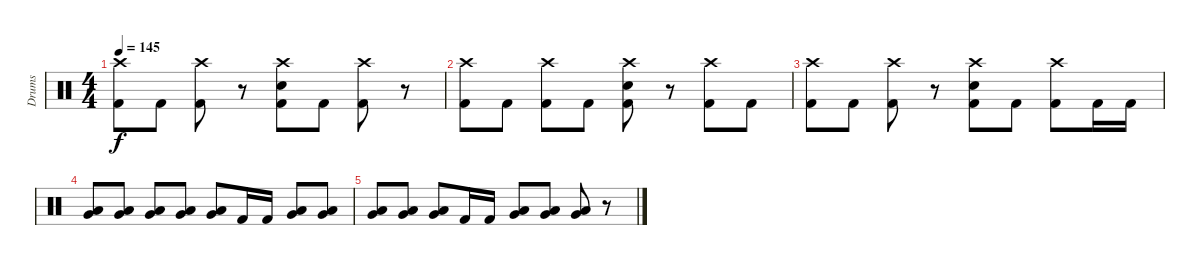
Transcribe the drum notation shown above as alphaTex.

\track ("Drums" "Drums") {instrument percussion}
\staff {score}
\articulation defaults
\ts (4 4)
\tempo 145
\clef neutral
\ks c
("Crash high (hit)" "Kick (hit) 2").8{dy f} "Kick (hit) 2".8 ("Crash high (hit)" "Kick (hit) 2").8 r.8 ("Crash high (hit)" "Electric Snare (hit)" "Kick (hit) 2").8 "Kick (hit) 2".8 ("Crash high (hit)" "Kick (hit) 2").8 r.8 |
("Crash high (hit)" "Kick (hit) 2").8 "Kick (hit) 2".8 ("Crash high (hit)" "Kick (hit) 2").8 "Kick (hit) 2".8 ("Crash high (hit)" "Electric Snare (hit)" "Kick (hit) 2").8 r.8 ("Crash high (hit)" "Kick (hit) 2").8 "Kick (hit) 2".8 |
("Crash high (hit)" "Kick (hit) 2").8 "Kick (hit) 2".8 ("Crash high (hit)" "Kick (hit) 2").8 r.8 ("Crash high (hit)" "Electric Snare (hit)" "Kick (hit) 2").8 "Kick (hit) 2".8 ("Crash high (hit)" "Kick (hit) 2").8 "Kick (hit) 2".16 "Kick (hit) 2".16 |
("Very Low Tom (hit)" "Low Floor Tom (hit)").8 ("Very Low Tom (hit)" "Low Floor Tom (hit)").8 ("Very Low Tom (hit)" "Low Floor Tom (hit)").8 ("Very Low Tom (hit)" "Low Floor Tom (hit)").8 ("Very Low Tom (hit)" "Low Floor Tom (hit)").8 "Kick (hit) 2".16 "Kick (hit) 2".16 ("Very Low Tom (hit)" "Low Floor Tom (hit)").8 ("Very Low Tom (hit)" "Low Floor Tom (hit)").8 |
("Very Low Tom (hit)" "Low Floor Tom (hit)").8 ("Very Low Tom (hit)" "Low Floor Tom (hit)").8 ("Very Low Tom (hit)" "Low Floor Tom (hit)").8 "Kick (hit) 2".16 "Kick (hit) 2".16 ("Very Low Tom (hit)" "Low Floor Tom (hit)").8 ("Very Low Tom (hit)" "Low Floor Tom (hit)").8 ("Very Low Tom (hit)" "Low Floor Tom (hit)").8 r.8
